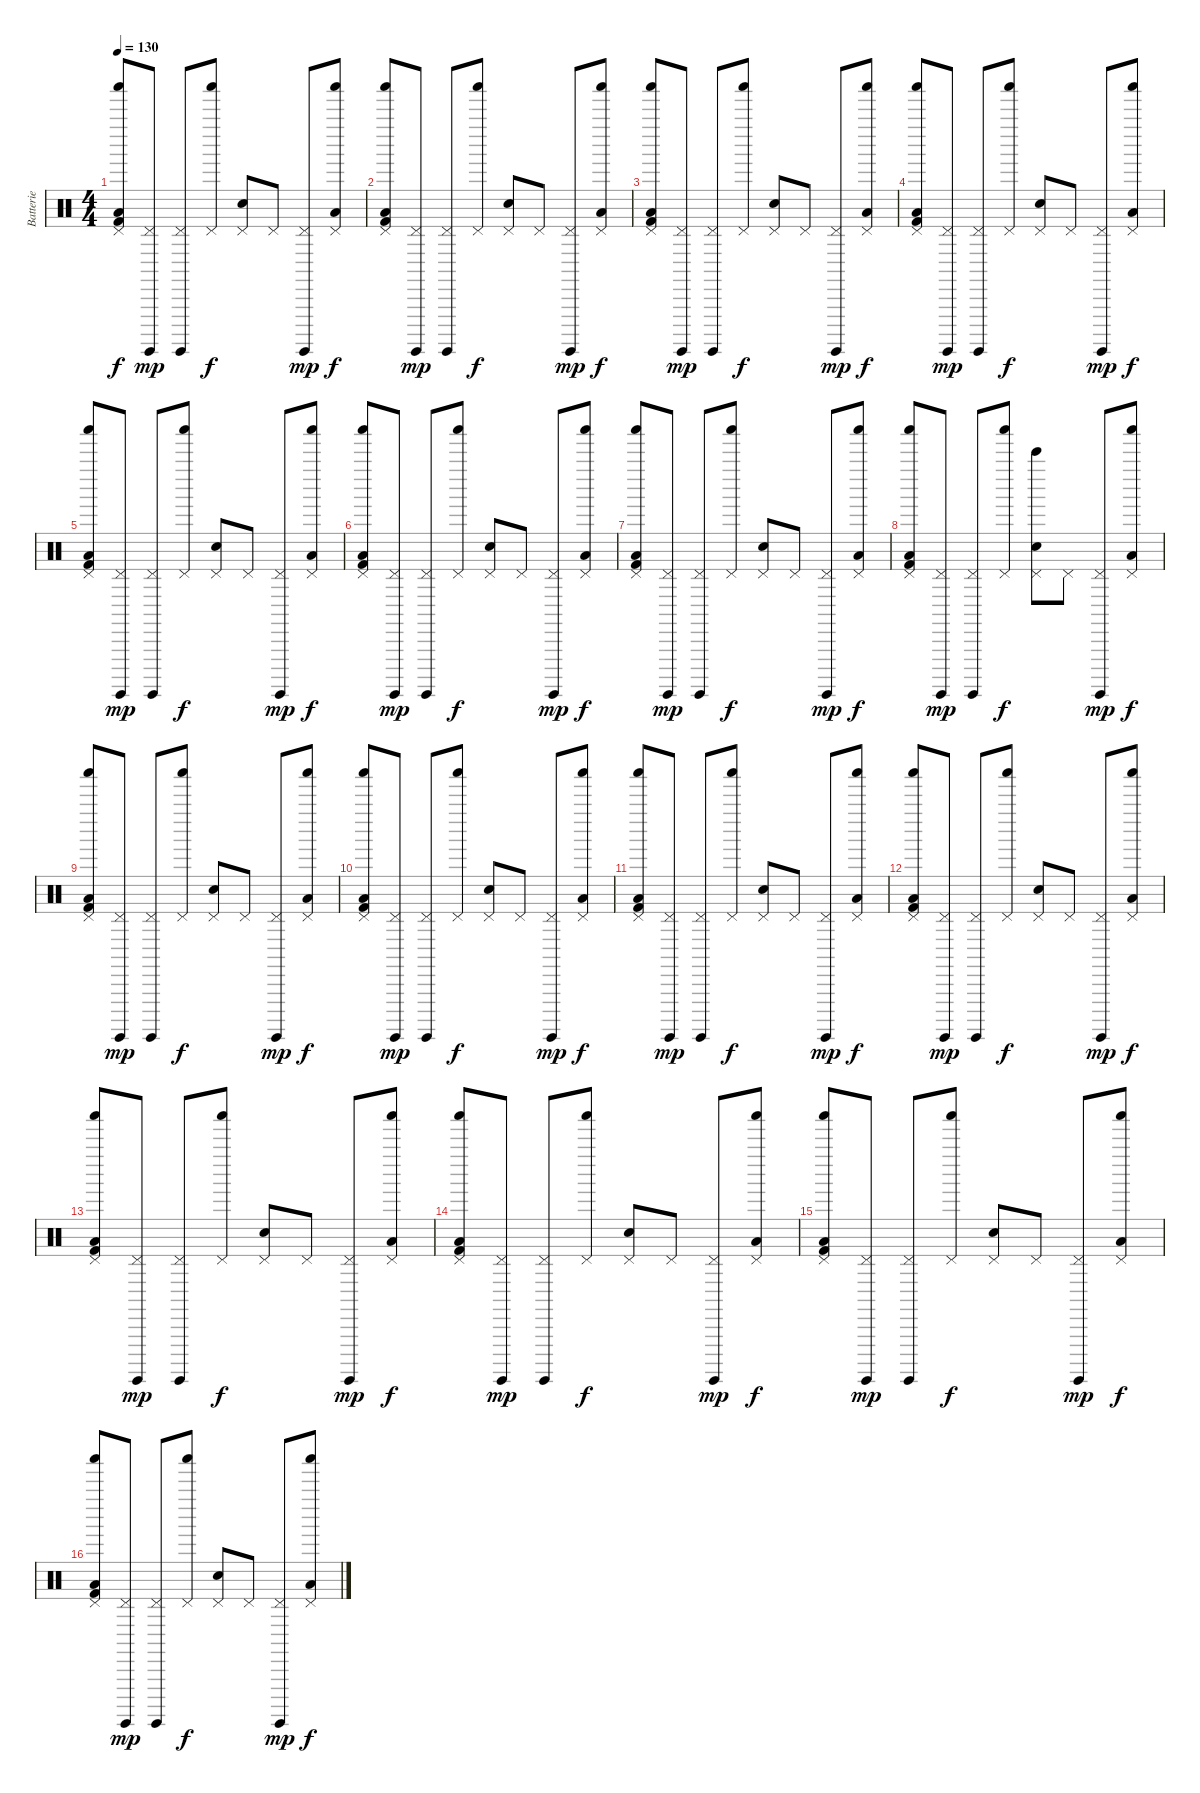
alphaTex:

\track ("Batterie" "Batterie") {instrument percussion}
\staff {score}
\articulation defaults
\ts (4 4)
\tempo 130
\clef neutral
\ks c
("Pedal Hi-Hat (hit)" "Shaker (hit)" "Low Floor Tom (hit)" "Kick (hit) 2").8{dy f} ("Pedal Hi-Hat (hit)" "Surdo (hit)").8{dy mp} ("Pedal Hi-Hat (hit)" "Surdo (hit)").8 ("Pedal Hi-Hat (hit)" "Shaker (hit)").8{dy f} ("Pedal Hi-Hat (hit)" "Electric Snare (hit)").8 "Pedal Hi-Hat (hit)".8 ("Pedal Hi-Hat (hit)" "Surdo (hit)").8{dy mp} ("Pedal Hi-Hat (hit)" "Shaker (hit)" "Low Floor Tom (hit)").8{dy f} |
("Pedal Hi-Hat (hit)" "Shaker (hit)" "Low Floor Tom (hit)" "Kick (hit) 2").8 ("Pedal Hi-Hat (hit)" "Surdo (hit)").8{dy mp} ("Pedal Hi-Hat (hit)" "Surdo (hit)").8 ("Pedal Hi-Hat (hit)" "Shaker (hit)").8{dy f} ("Pedal Hi-Hat (hit)" "Electric Snare (hit)").8 "Pedal Hi-Hat (hit)".8 ("Pedal Hi-Hat (hit)" "Surdo (hit)").8{dy mp} ("Pedal Hi-Hat (hit)" "Shaker (hit)" "Low Floor Tom (hit)").8{dy f} |
("Pedal Hi-Hat (hit)" "Shaker (hit)" "Low Floor Tom (hit)" "Kick (hit) 2").8 ("Pedal Hi-Hat (hit)" "Surdo (hit)").8{dy mp} ("Pedal Hi-Hat (hit)" "Surdo (hit)").8 ("Pedal Hi-Hat (hit)" "Shaker (hit)").8{dy f} ("Pedal Hi-Hat (hit)" "Electric Snare (hit)").8 "Pedal Hi-Hat (hit)".8 ("Pedal Hi-Hat (hit)" "Surdo (hit)").8{dy mp} ("Pedal Hi-Hat (hit)" "Shaker (hit)" "Low Floor Tom (hit)").8{dy f} |
("Pedal Hi-Hat (hit)" "Shaker (hit)" "Low Floor Tom (hit)" "Kick (hit) 2").8 ("Pedal Hi-Hat (hit)" "Surdo (hit)").8{dy mp} ("Pedal Hi-Hat (hit)" "Surdo (hit)").8 ("Pedal Hi-Hat (hit)" "Shaker (hit)").8{dy f} ("Pedal Hi-Hat (hit)" "Electric Snare (hit)").8 "Pedal Hi-Hat (hit)".8 ("Pedal Hi-Hat (hit)" "Surdo (hit)").8{dy mp} ("Pedal Hi-Hat (hit)" "Shaker (hit)" "Low Floor Tom (hit)").8{dy f} |
("Pedal Hi-Hat (hit)" "Shaker (hit)" "Low Floor Tom (hit)" "Kick (hit) 2").8 ("Pedal Hi-Hat (hit)" "Surdo (hit)").8{dy mp} ("Pedal Hi-Hat (hit)" "Surdo (hit)").8 ("Pedal Hi-Hat (hit)" "Shaker (hit)").8{dy f} ("Pedal Hi-Hat (hit)" "Electric Snare (hit)").8 "Pedal Hi-Hat (hit)".8 ("Pedal Hi-Hat (hit)" "Surdo (hit)").8{dy mp} ("Pedal Hi-Hat (hit)" "Shaker (hit)" "Low Floor Tom (hit)").8{dy f} |
("Pedal Hi-Hat (hit)" "Shaker (hit)" "Low Floor Tom (hit)" "Kick (hit) 2").8 ("Pedal Hi-Hat (hit)" "Surdo (hit)").8{dy mp} ("Pedal Hi-Hat (hit)" "Surdo (hit)").8 ("Pedal Hi-Hat (hit)" "Shaker (hit)").8{dy f} ("Pedal Hi-Hat (hit)" "Electric Snare (hit)").8 "Pedal Hi-Hat (hit)".8 ("Pedal Hi-Hat (hit)" "Surdo (hit)").8{dy mp} ("Pedal Hi-Hat (hit)" "Shaker (hit)" "Low Floor Tom (hit)").8{dy f} |
("Pedal Hi-Hat (hit)" "Shaker (hit)" "Low Floor Tom (hit)" "Kick (hit) 2").8 ("Pedal Hi-Hat (hit)" "Surdo (hit)").8{dy mp} ("Pedal Hi-Hat (hit)" "Surdo (hit)").8 ("Pedal Hi-Hat (hit)" "Shaker (hit)").8{dy f} ("Pedal Hi-Hat (hit)" "Electric Snare (hit)").8 "Pedal Hi-Hat (hit)".8 ("Pedal Hi-Hat (hit)" "Surdo (hit)").8{dy mp} ("Pedal Hi-Hat (hit)" "Shaker (hit)" "Low Floor Tom (hit)").8{dy f} |
("Pedal Hi-Hat (hit)" "Shaker (hit)" "Low Floor Tom (hit)" "Kick (hit) 2").8 ("Pedal Hi-Hat (hit)" "Surdo (hit)").8{dy mp} ("Pedal Hi-Hat (hit)" "Surdo (hit)").8 ("Pedal Hi-Hat (hit)" "Shaker (hit)").8{dy f} ("Pedal Hi-Hat (hit)" "Bell Tree (hit)" "Electric Snare (hit)").8 "Pedal Hi-Hat (hit)".8 ("Pedal Hi-Hat (hit)" "Surdo (hit)").8{dy mp} ("Pedal Hi-Hat (hit)" "Shaker (hit)" "Low Floor Tom (hit)").8{dy f} |
("Pedal Hi-Hat (hit)" "Shaker (hit)" "Low Floor Tom (hit)" "Kick (hit) 2").8 ("Pedal Hi-Hat (hit)" "Surdo (hit)").8{dy mp} ("Pedal Hi-Hat (hit)" "Surdo (hit)").8 ("Pedal Hi-Hat (hit)" "Shaker (hit)").8{dy f} ("Pedal Hi-Hat (hit)" "Electric Snare (hit)").8 "Pedal Hi-Hat (hit)".8 ("Pedal Hi-Hat (hit)" "Surdo (hit)").8{dy mp} ("Pedal Hi-Hat (hit)" "Shaker (hit)" "Low Floor Tom (hit)").8{dy f} |
("Pedal Hi-Hat (hit)" "Shaker (hit)" "Low Floor Tom (hit)" "Kick (hit) 2").8 ("Pedal Hi-Hat (hit)" "Surdo (hit)").8{dy mp} ("Pedal Hi-Hat (hit)" "Surdo (hit)").8 ("Pedal Hi-Hat (hit)" "Shaker (hit)").8{dy f} ("Pedal Hi-Hat (hit)" "Electric Snare (hit)").8 "Pedal Hi-Hat (hit)".8 ("Pedal Hi-Hat (hit)" "Surdo (hit)").8{dy mp} ("Pedal Hi-Hat (hit)" "Shaker (hit)" "Low Floor Tom (hit)").8{dy f} |
("Pedal Hi-Hat (hit)" "Shaker (hit)" "Low Floor Tom (hit)" "Kick (hit) 2").8 ("Pedal Hi-Hat (hit)" "Surdo (hit)").8{dy mp} ("Pedal Hi-Hat (hit)" "Surdo (hit)").8 ("Pedal Hi-Hat (hit)" "Shaker (hit)").8{dy f} ("Pedal Hi-Hat (hit)" "Electric Snare (hit)").8 "Pedal Hi-Hat (hit)".8 ("Pedal Hi-Hat (hit)" "Surdo (hit)").8{dy mp} ("Pedal Hi-Hat (hit)" "Shaker (hit)" "Low Floor Tom (hit)").8{dy f} |
("Pedal Hi-Hat (hit)" "Shaker (hit)" "Low Floor Tom (hit)" "Kick (hit) 2").8 ("Pedal Hi-Hat (hit)" "Surdo (hit)").8{dy mp} ("Pedal Hi-Hat (hit)" "Surdo (hit)").8 ("Pedal Hi-Hat (hit)" "Shaker (hit)").8{dy f} ("Pedal Hi-Hat (hit)" "Electric Snare (hit)").8 "Pedal Hi-Hat (hit)".8 ("Pedal Hi-Hat (hit)" "Surdo (hit)").8{dy mp} ("Pedal Hi-Hat (hit)" "Shaker (hit)" "Low Floor Tom (hit)").8{dy f} |
("Pedal Hi-Hat (hit)" "Shaker (hit)" "Low Floor Tom (hit)" "Kick (hit) 2").8 ("Pedal Hi-Hat (hit)" "Surdo (hit)").8{dy mp} ("Pedal Hi-Hat (hit)" "Surdo (hit)").8 ("Pedal Hi-Hat (hit)" "Shaker (hit)").8{dy f} ("Pedal Hi-Hat (hit)" "Electric Snare (hit)").8 "Pedal Hi-Hat (hit)".8 ("Pedal Hi-Hat (hit)" "Surdo (hit)").8{dy mp} ("Pedal Hi-Hat (hit)" "Shaker (hit)" "Low Floor Tom (hit)").8{dy f} |
("Pedal Hi-Hat (hit)" "Shaker (hit)" "Low Floor Tom (hit)" "Kick (hit) 2").8 ("Pedal Hi-Hat (hit)" "Surdo (hit)").8{dy mp} ("Pedal Hi-Hat (hit)" "Surdo (hit)").8 ("Pedal Hi-Hat (hit)" "Shaker (hit)").8{dy f} ("Pedal Hi-Hat (hit)" "Electric Snare (hit)").8 "Pedal Hi-Hat (hit)".8 ("Pedal Hi-Hat (hit)" "Surdo (hit)").8{dy mp} ("Pedal Hi-Hat (hit)" "Shaker (hit)" "Low Floor Tom (hit)").8{dy f} |
("Pedal Hi-Hat (hit)" "Shaker (hit)" "Low Floor Tom (hit)" "Kick (hit) 2").8 ("Pedal Hi-Hat (hit)" "Surdo (hit)").8{dy mp} ("Pedal Hi-Hat (hit)" "Surdo (hit)").8 ("Pedal Hi-Hat (hit)" "Shaker (hit)").8{dy f} ("Pedal Hi-Hat (hit)" "Electric Snare (hit)").8 "Pedal Hi-Hat (hit)".8 ("Pedal Hi-Hat (hit)" "Surdo (hit)").8{dy mp} ("Pedal Hi-Hat (hit)" "Shaker (hit)" "Low Floor Tom (hit)").8{dy f} |
("Pedal Hi-Hat (hit)" "Shaker (hit)" "Low Floor Tom (hit)" "Kick (hit) 2").8 ("Pedal Hi-Hat (hit)" "Surdo (hit)").8{dy mp} ("Pedal Hi-Hat (hit)" "Surdo (hit)").8 ("Pedal Hi-Hat (hit)" "Shaker (hit)").8{dy f} ("Pedal Hi-Hat (hit)" "Electric Snare (hit)").8 "Pedal Hi-Hat (hit)".8 ("Pedal Hi-Hat (hit)" "Surdo (hit)").8{dy mp} ("Pedal Hi-Hat (hit)" "Shaker (hit)" "Low Floor Tom (hit)").8{dy f}
